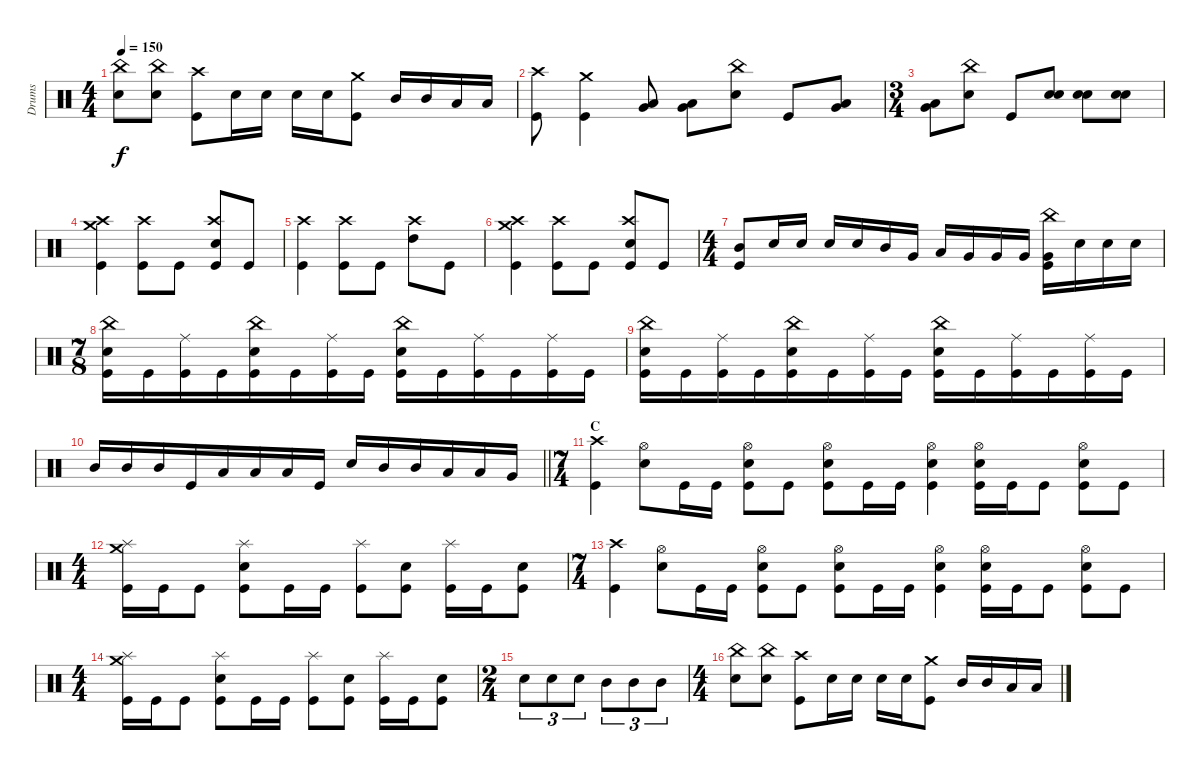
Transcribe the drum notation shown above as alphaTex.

\track ("Drums" "Drums") {instrument percussion}
\staff {score}
\articulation defaults
\ts (4 4)
\tempo 150
\clef neutral
\ks c
("China (hit)" "Electric Snare (hit)").8{dy f} ("China (hit)" "Electric Snare (hit)").8 ("Crash high (hit)" "Kick (hit)").8 "Electric Snare (hit)".16 "Electric Snare (hit)".16 "Electric Snare (hit)".16 "Electric Snare (hit)".16 ("Crash medium (hit)" "Kick (hit)").8 "Mid Tom (hit)".16 "Mid Tom (hit)".16 "Low Tom (hit)".16 "Low Tom (hit)".16 |
("Crash high (hit)" "Kick (hit)").8 ("Crash medium (hit)" "Kick (hit)").4 ("Low Tom (hit)" "Very Low Tom (hit)").8 ("Low Tom (hit)" "Very Low Tom (hit)").8 ("China (hit)" "Electric Snare (hit)").8 "Kick (hit)".8 ("Low Tom (hit)" "Very Low Tom (hit)").8 |
\ts (3 4)
("Low Tom (hit)" "Very Low Tom (hit)").8 ("China (hit)" "Electric Snare (hit)").8 "Kick (hit)".8 ("Electric Snare (hit)" "Electric Snare (hit)").8 ("Electric Snare (hit)" "Electric Snare (hit)").8 ("Electric Snare (hit)" "Electric Snare (hit)").8 |
("Crash medium (hit)" "Crash high (hit)" "Kick (hit)").4 ("Crash high (hit)" "Kick (hit)").8 "Kick (hit)".8 ("Crash high (hit)" "Electric Snare (hit)" "Kick (hit)").8 "Kick (hit)".8 |
("Crash high (hit)" "Kick (hit)").4 ("Crash high (hit)" "Kick (hit)").8 "Kick (hit)".8 ("Crash high (hit)" "High Tom (hit)").8 "Kick (hit)".8 |
("Crash medium (hit)" "Crash high (hit)" "Kick (hit)").4 ("Crash high (hit)" "Kick (hit)").8 "Kick (hit)".8 ("Crash high (hit)" "Electric Snare (hit)" "Kick (hit)").8 "Kick (hit)".8 |
\ts (4 4)
("Mid Tom (hit)" "Kick (hit)").8 "Electric Snare (hit)".16 "Electric Snare (hit)".16 "Electric Snare (hit)".16 "Electric Snare (hit)".16 "Mid Tom (hit)".16 "Very Low Tom (hit)".16 "Low Tom (hit)".16 "Very Low Tom (hit)".16 "Very Low Tom (hit)".16 "Very Low Tom (hit)".16 ("China (hit)" "Very Low Tom (hit)" "Kick (hit)").16 "Electric Snare (hit)".16 "Electric Snare (hit)".16 "Electric Snare (hit)".16 |
\ts (7 8)
("China (hit)" "Electric Snare (hit)" "Kick (hit)").16 "Kick (hit)".16 ("Ride (middle)" "Kick (hit)").16 "Kick (hit)".16 ("China (hit)" "Electric Snare (hit)" "Kick (hit)").16 "Kick (hit)".16 ("Ride (middle)" "Kick (hit)").16 "Kick (hit)".16 ("China (hit)" "Electric Snare (hit)" "Kick (hit)").16 "Kick (hit)".16 ("Ride (middle)" "Kick (hit)").16 "Kick (hit)".16 ("Ride (middle)" "Kick (hit)").16 "Kick (hit)".16 |
("China (hit)" "Electric Snare (hit)" "Kick (hit)").16 "Kick (hit)".16 ("Ride (middle)" "Kick (hit)").16 "Kick (hit)".16 ("China (hit)" "Electric Snare (hit)" "Kick (hit)").16 "Kick (hit)".16 ("Ride (middle)" "Kick (hit)").16 "Kick (hit)".16 ("China (hit)" "Electric Snare (hit)" "Kick (hit)").16 "Kick (hit)".16 ("Ride (middle)" "Kick (hit)").16 "Kick (hit)".16 ("Ride (middle)" "Kick (hit)").16 "Kick (hit)".16 |
\barLineRight lightlight "Mid Tom (hit)".16 "Mid Tom (hit)".16 "Mid Tom (hit)".16 "Kick (hit)".16 "Low Tom (hit)".16 "Low Tom (hit)".16 "Low Tom (hit)".16 "Kick (hit)".16 "Electric Snare (hit)".16 "Mid Tom (hit)".16 "Mid Tom (hit)".16 "Low Tom (hit)".16 "Low Tom (hit)".16 "Very Low Tom (hit)".16
|
\ts (7 4)
\section ("" "C")
("Crash high (hit)" "Kick (hit)").4 ("Hi-Hat (open)" "Electric Snare (hit)").8 "Kick (hit)".16 "Kick (hit)".16 ("Hi-Hat (open)" "Electric Snare (hit)" "Kick (hit)").8 "Kick (hit)".8 ("Hi-Hat (open)" "Electric Snare (hit)" "Kick (hit)").8 "Kick (hit)".16 "Kick (hit)".16 ("Hi-Hat (open)" "Electric Snare (hit)" "Kick (hit)").4 ("Hi-Hat (open)" "Electric Snare (hit)" "Kick (hit)").16 "Kick (hit)".16 "Kick (hit)".8 ("Hi-Hat (open)" "Electric Snare (hit)" "Kick (hit)").8 "Kick (hit)".8 |
\ts (4 4)
("Crash medium (hit)" "Splash (hit)" "Kick (hit)").16 "Kick (hit)".16 "Kick (hit)".8 ("Splash (hit)" "Electric Snare (hit)" "Kick (hit)").8 "Kick (hit)".16 "Kick (hit)".16 ("Splash (hit)" "Kick (hit)").8 ("Electric Snare (hit)" "Kick (hit)").8 ("Splash (hit)" "Kick (hit)").16 "Kick (hit)".16 ("Electric Snare (hit)" "Kick (hit)").8 |
\ts (7 4)
("Crash high (hit)" "Kick (hit)").4 ("Hi-Hat (open)" "Electric Snare (hit)").8 "Kick (hit)".16 "Kick (hit)".16 ("Hi-Hat (open)" "Electric Snare (hit)" "Kick (hit)").8 "Kick (hit)".8 ("Hi-Hat (open)" "Electric Snare (hit)" "Kick (hit)").8 "Kick (hit)".16 "Kick (hit)".16 ("Hi-Hat (open)" "Electric Snare (hit)" "Kick (hit)").4 ("Hi-Hat (open)" "Electric Snare (hit)" "Kick (hit)").16 "Kick (hit)".16 "Kick (hit)".8 ("Hi-Hat (open)" "Electric Snare (hit)" "Kick (hit)").8 "Kick (hit)".8 |
\ts (4 4)
("Crash medium (hit)" "Splash (hit)" "Kick (hit)").16 "Kick (hit)".16 "Kick (hit)".8 ("Splash (hit)" "Electric Snare (hit)" "Kick (hit)").8 "Kick (hit)".16 "Kick (hit)".16 ("Splash (hit)" "Kick (hit)").8 ("Electric Snare (hit)" "Kick (hit)").8 ("Splash (hit)" "Kick (hit)").16 "Kick (hit)".16 ("Electric Snare (hit)" "Kick (hit)").8 |
\ts (2 4)
"Electric Snare (hit)".8{tu (3 2)} "Electric Snare (hit)".8{tu (3 2)} "Electric Snare (hit)".8{tu (3 2)} "Mid Tom (hit)".8{tu (3 2)} "Mid Tom (hit)".8{tu (3 2)} "Mid Tom (hit)".8{tu (3 2)} |
\ts (4 4)
("China (hit)" "Electric Snare (hit)").8 ("China (hit)" "Electric Snare (hit)").8 ("Crash high (hit)" "Kick (hit)").8 "Electric Snare (hit)".16 "Electric Snare (hit)".16 "Electric Snare (hit)".16 "Electric Snare (hit)".16 ("Crash medium (hit)" "Kick (hit)").8 "Mid Tom (hit)".16 "Mid Tom (hit)".16 "Low Tom (hit)".16 "Low Tom (hit)".16
